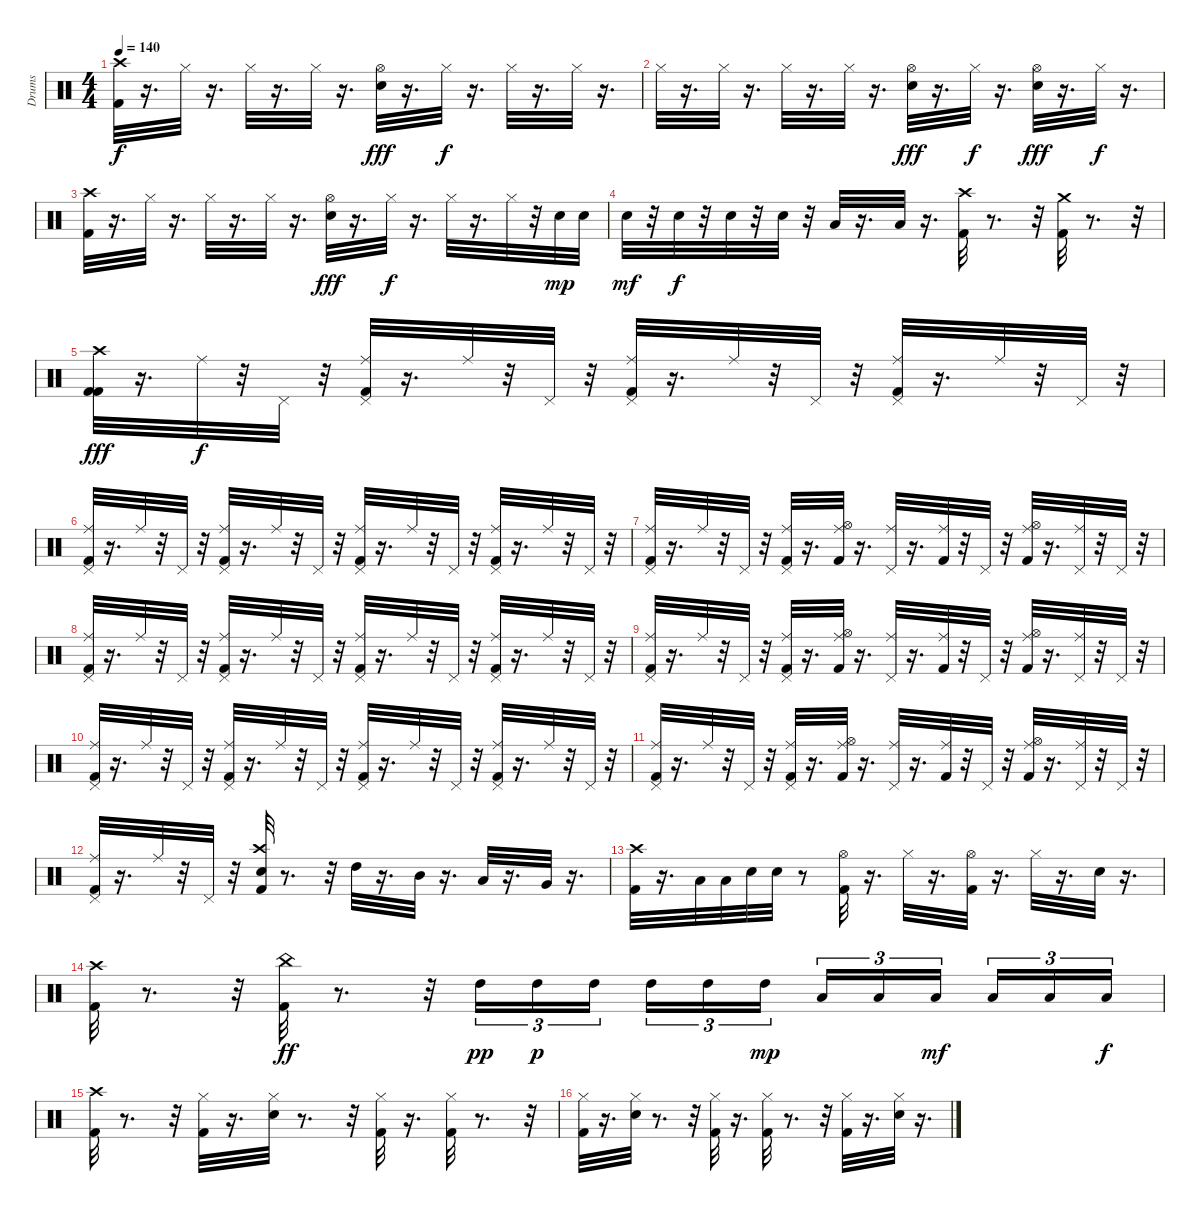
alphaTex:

\track ("Drums" "Drums") {instrument percussion}
\staff {score}
\articulation defaults
\ts (4 4)
\tempo 140
\clef neutral
\ks c
("Kick (hit) 2" "Crash high (hit)").32{dy f} r.16{d} "Hi-Hat (closed)".32 r.16{d} "Hi-Hat (closed)".32 r.16{d} "Hi-Hat (closed)".32 r.16{d} ("Hi-Hat (open)" "Snare (hit) 2").32{dy fff} r.16{d} "Hi-Hat (closed)".32{dy f} r.16{d} "Hi-Hat (closed)".32 r.16{d} "Hi-Hat (closed)".32 r.16{d} |
"Hi-Hat (closed)".32 r.16{d} "Hi-Hat (closed)".32 r.16{d} "Hi-Hat (closed)".32 r.16{d} "Hi-Hat (closed)".32 r.16{d} ("Snare (hit) 2" "Hi-Hat (open)").32{dy fff} r.16{d} "Hi-Hat (closed)".32{dy f} r.16{d} ("Snare (hit) 2" "Hi-Hat (open)").32{dy fff} r.16{d} "Hi-Hat (closed)".32{dy f} r.16{d} |
("Kick (hit) 2" "Crash high (hit)").32 r.16{d} "Hi-Hat (closed)".32 r.16{d} "Hi-Hat (closed)".32 r.16{d} "Hi-Hat (closed)".32 r.16{d} ("Hi-Hat (open)" "Snare (hit) 2").32{dy fff} r.16{d} "Hi-Hat (closed)".32{dy f} r.16{d} "Hi-Hat (closed)".32 r.16{d} "Hi-Hat (closed)".32 r.32 "Snare (hit) 2".32{dy mp} "Snare (hit) 2".32 |
"Snare (hit) 2".32{dy mf} r.32 "Snare (hit) 2".32{dy f} r.32 "Snare (hit) 2".32 r.32 "Snare (hit) 2".32 r.32 "Low Tom (hit)".32 r.16{d} "Low Tom (hit)".32 r.16{d} ("Kick (hit) 2" "Crash high (hit)").32 r.8{d} r.32 ("Kick (hit) 2" "Crash medium (hit)").32 r.8{d} r.32 |
("Kick (hit) 2" "Crash high (hit)" "Kick (hit) 2").32{dy fff} r.16{d} "Ride (middle)".32{dy f} r.32 "Pedal Hi-Hat (hit)".32 r.32 ("Pedal Hi-Hat (hit)" "Ride (middle)" "Kick (hit) 2").32 r.16{d} "Ride (middle)".32 r.32 "Pedal Hi-Hat (hit)".32 r.32 ("Pedal Hi-Hat (hit)" "Ride (middle)" "Kick (hit) 2").32 r.16{d} "Ride (middle)".32 r.32 "Pedal Hi-Hat (hit)".32 r.32 ("Pedal Hi-Hat (hit)" "Ride (middle)" "Kick (hit) 2").32 r.16{d} "Ride (middle)".32 r.32 "Pedal Hi-Hat (hit)".32 r.32 |
("Pedal Hi-Hat (hit)" "Ride (middle)" "Kick (hit) 2").32 r.16{d} "Ride (middle)".32 r.32 "Pedal Hi-Hat (hit)".32 r.32 ("Pedal Hi-Hat (hit)" "Ride (middle)" "Kick (hit) 2").32 r.16{d} "Ride (middle)".32 r.32 "Pedal Hi-Hat (hit)".32 r.32 ("Pedal Hi-Hat (hit)" "Ride (middle)" "Kick (hit) 2").32 r.16{d} "Ride (middle)".32 r.32 "Pedal Hi-Hat (hit)".32 r.32 ("Pedal Hi-Hat (hit)" "Ride (middle)" "Kick (hit) 2").32 r.16{d} "Ride (middle)".32 r.32 "Pedal Hi-Hat (hit)".32 r.32 |
("Ride (middle)" "Pedal Hi-Hat (hit)" "Kick (hit) 2").32 r.16{d} "Ride (middle)".32 r.32 "Pedal Hi-Hat (hit)".32 r.32 ("Ride (middle)" "Pedal Hi-Hat (hit)" "Kick (hit) 2").32 r.16{d} ("Hi-Hat (open)" "Ride (middle)" "Kick (hit) 2").32 r.16{d} ("Pedal Hi-Hat (hit)" "Ride (middle)").32 r.16{d} ("Ride (middle)" "Kick (hit) 2").32 r.32 "Pedal Hi-Hat (hit)".32 r.32 ("Hi-Hat (open)" "Kick (hit) 2" "Ride (middle)").32 r.16{d} ("Pedal Hi-Hat (hit)" "Ride (middle)").32 r.32 "Pedal Hi-Hat (hit)".32 r.32 |
("Pedal Hi-Hat (hit)" "Ride (middle)" "Kick (hit) 2").32 r.16{d} "Ride (middle)".32 r.32 "Pedal Hi-Hat (hit)".32 r.32 ("Pedal Hi-Hat (hit)" "Ride (middle)" "Kick (hit) 2").32 r.16{d} "Ride (middle)".32 r.32 "Pedal Hi-Hat (hit)".32 r.32 ("Pedal Hi-Hat (hit)" "Ride (middle)" "Kick (hit) 2").32 r.16{d} "Ride (middle)".32 r.32 "Pedal Hi-Hat (hit)".32 r.32 ("Pedal Hi-Hat (hit)" "Ride (middle)" "Kick (hit) 2").32 r.16{d} "Ride (middle)".32 r.32 "Pedal Hi-Hat (hit)".32 r.32 |
("Ride (middle)" "Pedal Hi-Hat (hit)" "Kick (hit) 2").32 r.16{d} "Ride (middle)".32 r.32 "Pedal Hi-Hat (hit)".32 r.32 ("Ride (middle)" "Pedal Hi-Hat (hit)" "Kick (hit) 2").32 r.16{d} ("Hi-Hat (open)" "Ride (middle)" "Kick (hit) 2").32 r.16{d} ("Pedal Hi-Hat (hit)" "Ride (middle)").32 r.16{d} ("Ride (middle)" "Kick (hit) 2").32 r.32 "Pedal Hi-Hat (hit)".32 r.32 ("Hi-Hat (open)" "Kick (hit) 2" "Ride (middle)").32 r.16{d} ("Pedal Hi-Hat (hit)" "Ride (middle)").32 r.32 "Pedal Hi-Hat (hit)".32 r.32 |
("Pedal Hi-Hat (hit)" "Ride (middle)" "Kick (hit) 2").32 r.16{d} "Ride (middle)".32 r.32 "Pedal Hi-Hat (hit)".32 r.32 ("Pedal Hi-Hat (hit)" "Ride (middle)" "Kick (hit) 2").32 r.16{d} "Ride (middle)".32 r.32 "Pedal Hi-Hat (hit)".32 r.32 ("Pedal Hi-Hat (hit)" "Ride (middle)" "Kick (hit) 2").32 r.16{d} "Ride (middle)".32 r.32 "Pedal Hi-Hat (hit)".32 r.32 ("Ride (middle)" "Pedal Hi-Hat (hit)" "Kick (hit) 2").32 r.16{d} "Ride (middle)".32 r.32 "Pedal Hi-Hat (hit)".32 r.32 |
("Ride (middle)" "Pedal Hi-Hat (hit)" "Kick (hit) 2").32 r.16{d} "Ride (middle)".32 r.32 "Pedal Hi-Hat (hit)".32 r.32 ("Ride (middle)" "Pedal Hi-Hat (hit)" "Kick (hit) 2").32 r.16{d} ("Hi-Hat (open)" "Ride (middle)" "Kick (hit) 2").32 r.16{d} ("Pedal Hi-Hat (hit)" "Ride (middle)").32 r.16{d} ("Ride (middle)" "Kick (hit) 2").32 r.32 "Pedal Hi-Hat (hit)".32 r.32 ("Hi-Hat (open)" "Kick (hit) 2" "Ride (middle)").32 r.16{d} ("Pedal Hi-Hat (hit)" "Ride (middle)").32 r.32 "Pedal Hi-Hat (hit)".32 r.32 |
("Ride (middle)" "Kick (hit) 2" "Pedal Hi-Hat (hit)").32 r.16{d} "Ride (middle)".32 r.32 "Pedal Hi-Hat (hit)".32 r.32 ("Snare (hit) 2" "Kick (hit) 2" "Crash high (hit)").32 r.8{d} r.32 "High Tom (hit)".32 r.16{d} "Mid Tom (hit)".32 r.16{d} "Low Tom (hit)".32 r.16{d} "Very Low Tom (hit)".32 r.16{d} |
("Kick (hit) 2" "Crash high (hit)").32 r.16{d} "Low Tom (hit)".32 "Low Tom (hit)".32 "Snare (hit) 2".32 "Snare (hit) 2".32 r.8 ("Hi-Hat (open)" "Kick (hit) 2").32 r.16{d} "Hi-Hat (closed)".32 r.16{d} ("Hi-Hat (open)" "Kick (hit) 2").32 r.16{d} "Hi-Hat (closed)".32 r.16{d} "Snare (hit) 2".32 r.16{d} |
("Crash high (hit)" "Kick (hit) 2").32 r.8{d} r.32 ("China (hit)" "Kick (hit) 2").32{dy ff} r.8{d} r.32 "High Tom (hit)".16{tu (3 2) dy pp} "High Tom (hit)".16{tu (3 2) dy p} "High Tom (hit)".16{tu (3 2) beam splitsecondary} "High Tom (hit)".16{tu (3 2)} "High Tom (hit)".16{tu (3 2)} "High Tom (hit)".16{tu (3 2) dy mp} "Low Tom (hit)".16{tu (3 2)} "Low Tom (hit)".16{tu (3 2)} "Low Tom (hit)".16{tu (3 2) dy mf beam splitsecondary} "Low Tom (hit)".16{tu (3 2)} "Low Tom (hit)".16{tu (3 2)} "Low Tom (hit)".16{tu (3 2) dy f} |
("Crash high (hit)" "Kick (hit) 2").32 r.8{d} r.32 ("Hi-Hat (closed)" "Kick (hit) 2").32 r.16{d} ("Hi-Hat (closed)" "Snare (hit) 2").32 r.8{d} r.32 ("Hi-Hat (closed)" "Kick (hit) 2").32 r.16{d} ("Hi-Hat (closed)" "Kick (hit) 2").32 r.8{d} r.32 |
("Hi-Hat (closed)" "Kick (hit) 2").32 r.16{d} ("Hi-Hat (closed)" "Snare (hit) 2").32 r.8{d} r.32 ("Hi-Hat (closed)" "Kick (hit) 2").32 r.16{d} ("Hi-Hat (closed)" "Kick (hit) 2").32 r.8{d} r.32 ("Hi-Hat (closed)" "Kick (hit) 2").32 r.16{d} ("Hi-Hat (closed)" "Snare (hit) 2").32 r.16{d}
